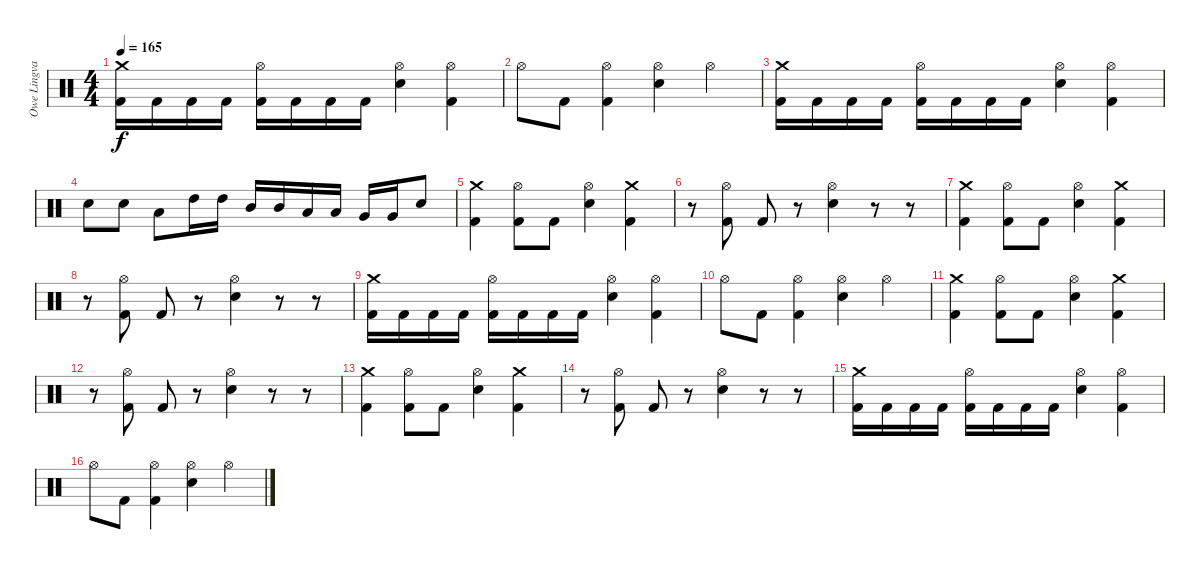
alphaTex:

\track ("Owe Lingvall" "Owe Lingva") {instrument percussion}
\staff {score}
\articulation defaults
\ts (4 4)
\tempo 165
\clef neutral
\ks c
("Crash medium (hit)" "Kick (hit) 2").16{dy f} "Kick (hit) 2".16 "Kick (hit) 2".16 "Kick (hit) 2".16 ("Hi-Hat (open)" "Kick (hit) 2").16 "Kick (hit) 2".16 "Kick (hit) 2".16 "Kick (hit) 2".16 ("Hi-Hat (open)" "Snare (hit) 2").4 ("Hi-Hat (open)" "Kick (hit) 2").4 |
"Hi-Hat (open)".8 "Kick (hit) 2".8 ("Hi-Hat (open)" "Kick (hit) 2").4 ("Hi-Hat (open)" "Snare (hit) 2").4 "Hi-Hat (open)".4 |
("Crash medium (hit)" "Kick (hit) 2").16 "Kick (hit) 2".16 "Kick (hit) 2".16 "Kick (hit) 2".16 ("Hi-Hat (open)" "Kick (hit) 2").16 "Kick (hit) 2".16 "Kick (hit) 2".16 "Kick (hit) 2".16 ("Hi-Hat (open)" "Snare (hit) 2").4 ("Hi-Hat (open)" "Kick (hit) 2").4 |
"Snare (hit) 2".8 "Snare (hit) 2".8 "Low Tom (hit)".8 "High Tom (hit)".16 "High Tom (hit)".16 "Mid Tom (hit)".16 "Mid Tom (hit)".16 "Low Tom (hit)".16 "Low Tom (hit)".16 "Very Low Tom (hit)".16 "Very Low Tom (hit)".16 "Snare (hit) 2".8 |
("Crash medium (hit)" "Kick (hit) 2").4 ("Hi-Hat (open)" "Kick (hit) 2").8 "Kick (hit) 2".8 ("Hi-Hat (open)" "Snare (hit) 2").4 ("Crash medium (hit)" "Kick (hit) 2").4 |
r.8 ("Hi-Hat (open)" "Kick (hit) 2").8 "Kick (hit) 2".8 r.8 ("Hi-Hat (open)" "Snare (hit) 2").4 r.8 r.8 |
("Crash medium (hit)" "Kick (hit) 2").4 ("Hi-Hat (open)" "Kick (hit) 2").8 "Kick (hit) 2".8 ("Hi-Hat (open)" "Snare (hit) 2").4 ("Crash medium (hit)" "Kick (hit) 2").4 |
r.8 ("Hi-Hat (open)" "Kick (hit) 2").8 "Kick (hit) 2".8 r.8 ("Hi-Hat (open)" "Snare (hit) 2").4 r.8 r.8 |
("Crash medium (hit)" "Kick (hit) 2").16 "Kick (hit) 2".16 "Kick (hit) 2".16 "Kick (hit) 2".16 ("Hi-Hat (open)" "Kick (hit) 2").16 "Kick (hit) 2".16 "Kick (hit) 2".16 "Kick (hit) 2".16 ("Hi-Hat (open)" "Snare (hit) 2").4 ("Hi-Hat (open)" "Kick (hit) 2").4 |
"Hi-Hat (open)".8 "Kick (hit) 2".8 ("Hi-Hat (open)" "Kick (hit) 2").4 ("Hi-Hat (open)" "Snare (hit) 2").4 "Hi-Hat (open)".4 |
("Crash medium (hit)" "Kick (hit) 2").4 ("Hi-Hat (open)" "Kick (hit) 2").8 "Kick (hit) 2".8 ("Hi-Hat (open)" "Snare (hit) 2").4 ("Crash medium (hit)" "Kick (hit) 2").4 |
r.8 ("Hi-Hat (open)" "Kick (hit) 2").8 "Kick (hit) 2".8 r.8 ("Hi-Hat (open)" "Snare (hit) 2").4 r.8 r.8 |
("Crash medium (hit)" "Kick (hit) 2").4 ("Hi-Hat (open)" "Kick (hit) 2").8 "Kick (hit) 2".8 ("Hi-Hat (open)" "Snare (hit) 2").4 ("Crash medium (hit)" "Kick (hit) 2").4 |
r.8 ("Hi-Hat (open)" "Kick (hit) 2").8 "Kick (hit) 2".8 r.8 ("Hi-Hat (open)" "Snare (hit) 2").4 r.8 r.8 |
("Crash medium (hit)" "Kick (hit) 2").16 "Kick (hit) 2".16 "Kick (hit) 2".16 "Kick (hit) 2".16 ("Hi-Hat (open)" "Kick (hit) 2").16 "Kick (hit) 2".16 "Kick (hit) 2".16 "Kick (hit) 2".16 ("Hi-Hat (open)" "Snare (hit) 2").4 ("Hi-Hat (open)" "Kick (hit) 2").4 |
"Hi-Hat (open)".8 "Kick (hit) 2".8 ("Hi-Hat (open)" "Kick (hit) 2").4 ("Hi-Hat (open)" "Snare (hit) 2").4 "Hi-Hat (open)".4
